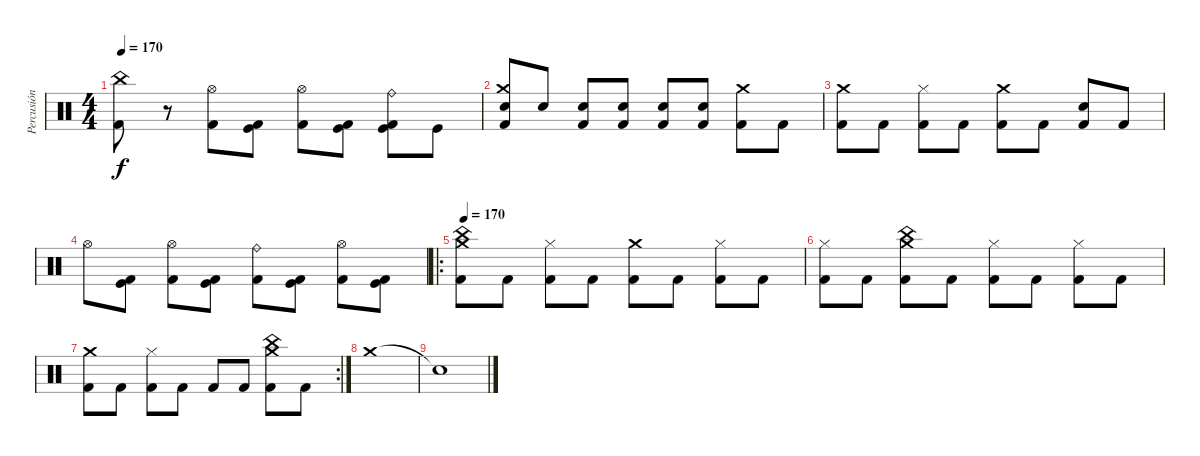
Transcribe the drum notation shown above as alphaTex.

\track ("Percusión" "Percusión") {instrument percussion}
\staff {score}
\articulation defaults
\ts (4 4)
\tempo 170
\clef neutral
\ks c
("China (hit)" "Kick (hit) 2").8{dy f} r.8 ("Hi-Hat (open)" "Kick (hit) 2").8 ("Kick (hit)" "Kick (hit) 2").8 ("Hi-Hat (open)" "Kick (hit) 2").8 ("Kick (hit)" "Kick (hit) 2").8 ("Ride (bell)" "Kick (hit)" "Kick (hit) 2").8 "Kick (hit)".8 |
("Crash medium (hit)" "Snare (hit) 2" "Kick (hit) 2").8 "Snare (hit) 2".8 ("Snare (hit) 2" "Kick (hit) 2").8 ("Snare (hit) 2" "Kick (hit) 2").8 ("Snare (hit) 2" "Kick (hit) 2").8 ("Snare (hit) 2" "Kick (hit) 2").8 ("Crash medium (hit)" "Kick (hit) 2").8 "Kick (hit) 2".8 |
("Crash medium (hit)" "Kick (hit) 2").8 "Kick (hit) 2".8 ("Hi-Hat (closed)" "Kick (hit) 2").8 "Kick (hit) 2".8 ("Crash medium (hit)" "Kick (hit) 2").8 "Kick (hit) 2".8 ("Snare (hit) 2" "Kick (hit) 2").8 "Kick (hit) 2".8 |
"Hi-Hat (open)".8 ("Kick (hit)" "Kick (hit) 2").8 ("Hi-Hat (open)" "Kick (hit) 2").8 ("Kick (hit)" "Kick (hit) 2").8 ("Ride (bell)" "Kick (hit) 2").8 ("Kick (hit)" "Kick (hit) 2").8 ("Hi-Hat (open)" "Kick (hit) 2").8 ("Kick (hit)" "Kick (hit) 2").8 |
\ro
\tempo 170
("China (hit)" "Crash medium (hit)" "Kick (hit) 2").8 "Kick (hit) 2".8 ("Hi-Hat (closed)" "Kick (hit) 2").8 "Kick (hit) 2".8 ("Crash medium (hit)" "Kick (hit) 2").8 "Kick (hit) 2".8 ("Hi-Hat (closed)" "Kick (hit) 2").8 "Kick (hit) 2".8 |
("Hi-Hat (closed)" "Kick (hit) 2").8 "Kick (hit) 2".8 ("China (hit)" "Crash medium (hit)" "Kick (hit) 2").8 "Kick (hit) 2".8 ("Hi-Hat (closed)" "Kick (hit) 2").8 "Kick (hit) 2".8 ("Hi-Hat (closed)" "Kick (hit) 2").8 "Kick (hit) 2".8 |
\rc 2
("Crash medium (hit)" "Kick (hit) 2").8 "Kick (hit) 2".8 ("Hi-Hat (closed)" "Kick (hit) 2").8 "Kick (hit) 2".8 "Kick (hit) 2".8 "Kick (hit) 2".8 ("China (hit)" "Crash medium (hit)" "Kick (hit) 2").8 "Kick (hit) 2".8 |
"Crash medium (hit)".1 |
"Snare (hit)"{t}.1
